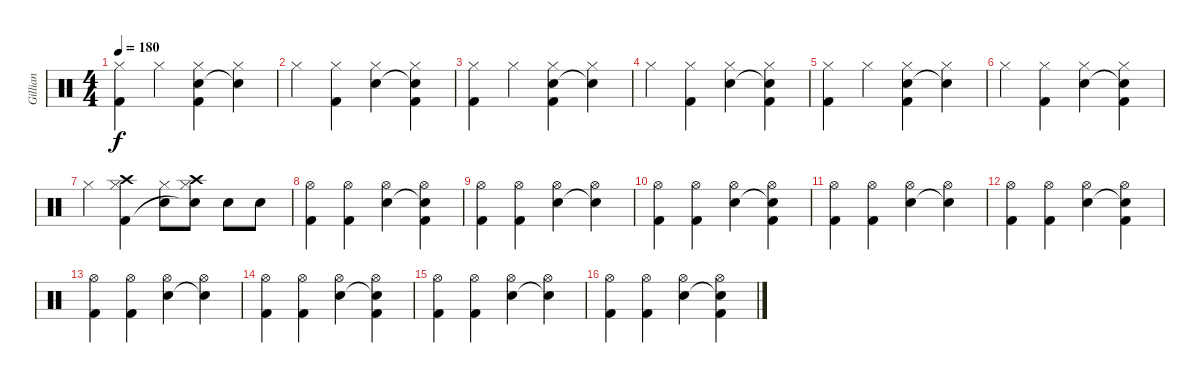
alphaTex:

\track ("Gillian" "Gillian") {instrument percussion}
\staff {score}
\articulation defaults
\ts (4 4)
\tempo 180
\clef neutral
\ks c
("Hi-Hat (closed)" "Kick (hit) 2").4{dy f} "Hi-Hat (closed)".4 ("Electric Snare (hit)" "Hi-Hat (closed)" "Kick (hit) 2").4 ("Snare (hit)"{t} "Hi-Hat (closed)").4 |
"Hi-Hat (closed)".4 ("Hi-Hat (closed)" "Kick (hit) 2").4 ("Electric Snare (hit)" "Hi-Hat (closed)").4 ("Snare (hit)"{t} "Hi-Hat (closed)" "Kick (hit) 2").4 |
("Hi-Hat (closed)" "Kick (hit) 2").4 "Hi-Hat (closed)".4 ("Electric Snare (hit)" "Hi-Hat (closed)" "Kick (hit) 2").4 ("Snare (hit)"{t} "Hi-Hat (closed)").4 |
"Hi-Hat (closed)".4 ("Hi-Hat (closed)" "Kick (hit) 2").4 ("Electric Snare (hit)" "Hi-Hat (closed)").4 ("Snare (hit)"{t} "Hi-Hat (closed)" "Kick (hit) 2").4 |
("Hi-Hat (closed)" "Kick (hit) 2").4 "Hi-Hat (closed)".4 ("Electric Snare (hit)" "Hi-Hat (closed)" "Kick (hit) 2").4 ("Snare (hit)"{t} "Hi-Hat (closed)").4 |
"Hi-Hat (closed)".4 ("Hi-Hat (closed)" "Kick (hit) 2").4 ("Electric Snare (hit)" "Hi-Hat (closed)").4 ("Snare (hit)"{t} "Hi-Hat (closed)" "Kick (hit) 2").4 |
"Hi-Hat (closed)".4 ("Crash high (hit)" "Hi-Hat (closed)" "Kick (hit) 2").4 ("Hi-Hat (closed)" "Electric Snare (hit)").8 ("Crash high (hit)" "Hi-Hat (closed)" "Snare (hit)"{t}).8 "Electric Snare (hit)".8 "Electric Snare (hit)".8 |
("Hi-Hat (open)" "Kick (hit) 2").4 ("Hi-Hat (open)" "Kick (hit) 2").4 ("Hi-Hat (open)" "Electric Snare (hit)").4 ("Hi-Hat (open)" "Snare (hit)"{t} "Kick (hit) 2").4 |
("Hi-Hat (open)" "Kick (hit) 2").4 ("Hi-Hat (open)" "Kick (hit) 2").4 ("Hi-Hat (open)" "Electric Snare (hit)").4 ("Hi-Hat (open)" "Snare (hit)"{t}).4 |
("Hi-Hat (open)" "Kick (hit) 2").4 ("Hi-Hat (open)" "Kick (hit) 2").4 ("Hi-Hat (open)" "Electric Snare (hit)").4 ("Hi-Hat (open)" "Snare (hit)"{t} "Kick (hit) 2").4 |
("Hi-Hat (open)" "Kick (hit) 2").4 ("Hi-Hat (open)" "Kick (hit) 2").4 ("Hi-Hat (open)" "Electric Snare (hit)").4 ("Hi-Hat (open)" "Snare (hit)"{t}).4 |
("Hi-Hat (open)" "Kick (hit) 2").4 ("Hi-Hat (open)" "Kick (hit) 2").4 ("Hi-Hat (open)" "Electric Snare (hit)").4 ("Hi-Hat (open)" "Snare (hit)"{t} "Kick (hit) 2").4 |
("Hi-Hat (open)" "Kick (hit) 2").4 ("Hi-Hat (open)" "Kick (hit) 2").4 ("Hi-Hat (open)" "Electric Snare (hit)").4 ("Hi-Hat (open)" "Snare (hit)"{t}).4 |
("Hi-Hat (open)" "Kick (hit) 2").4 ("Hi-Hat (open)" "Kick (hit) 2").4 ("Hi-Hat (open)" "Electric Snare (hit)").4 ("Hi-Hat (open)" "Snare (hit)"{t} "Kick (hit) 2").4 |
("Hi-Hat (open)" "Kick (hit) 2").4 ("Hi-Hat (open)" "Kick (hit) 2").4 ("Hi-Hat (open)" "Electric Snare (hit)").4 ("Hi-Hat (open)" "Snare (hit)"{t}).4 |
("Hi-Hat (open)" "Kick (hit) 2").4 ("Hi-Hat (open)" "Kick (hit) 2").4 ("Hi-Hat (open)" "Electric Snare (hit)").4 ("Hi-Hat (open)" "Snare (hit)"{t} "Kick (hit) 2").4
